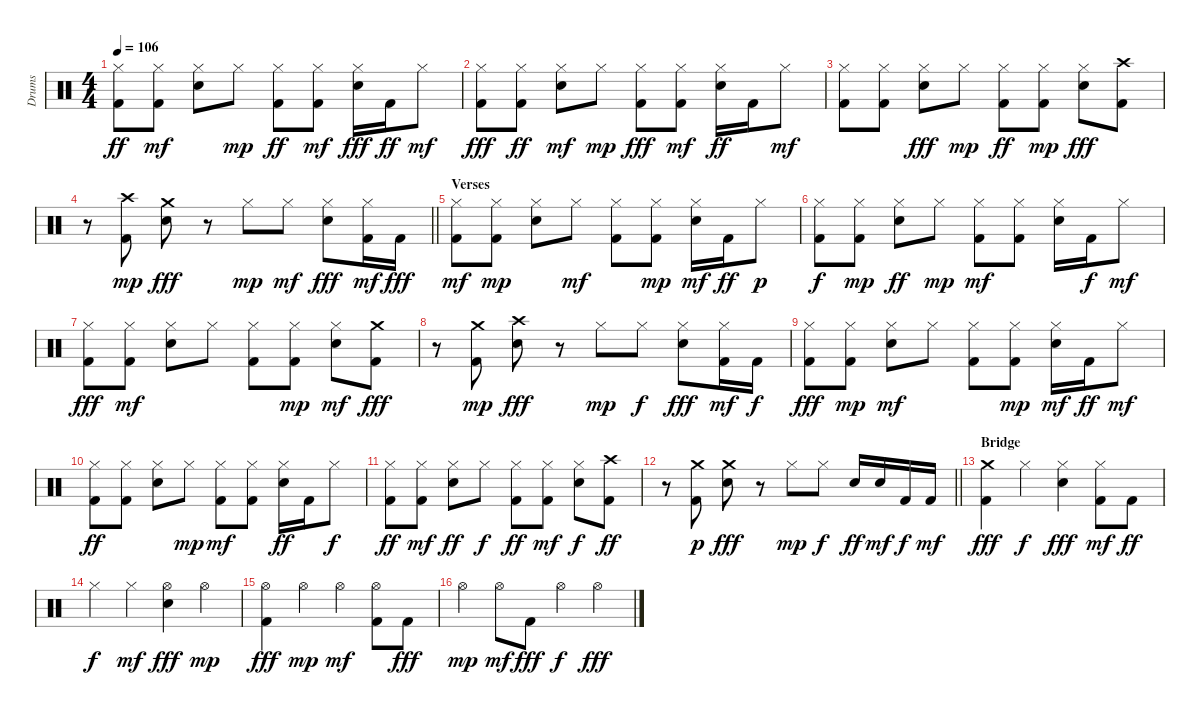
\track ("Drums" "Drums") {instrument percussion}
\staff {score}
\articulation defaults
\ts (4 4)
\tempo 106
\clef neutral
\ks c
("Kick (hit) 2" "Hi-Hat (closed)").8{dy ff} ("Kick (hit) 2" "Hi-Hat (closed)").8{dy mf} ("Snare (hit) 2" "Hi-Hat (closed)").8 "Hi-Hat (closed)".8{dy mp} ("Hi-Hat (closed)" "Kick (hit) 2").8{dy ff} ("Hi-Hat (closed)" "Kick (hit) 2").8{dy mf} ("Snare (hit) 2" "Hi-Hat (closed)").16{dy fff} "Kick (hit) 2".16{dy ff} "Hi-Hat (closed)".8{dy mf} |
("Hi-Hat (closed)" "Kick (hit) 2").8{dy fff} ("Hi-Hat (closed)" "Kick (hit) 2").8{dy ff} ("Snare (hit) 2" "Hi-Hat (closed)").8{dy mf} "Hi-Hat (closed)".8{dy mp} ("Kick (hit) 2" "Hi-Hat (closed)").8{dy fff} ("Kick (hit) 2" "Hi-Hat (closed)").8{dy mf} ("Snare (hit) 2" "Hi-Hat (closed)").16{dy ff} "Kick (hit) 2".16 "Hi-Hat (closed)".8{dy mf} |
("Kick (hit) 2" "Hi-Hat (closed)").8 ("Kick (hit) 2" "Hi-Hat (closed)").8 ("Snare (hit) 2" "Hi-Hat (closed)").8{dy fff} "Hi-Hat (closed)".8{dy mp} ("Kick (hit) 2" "Hi-Hat (closed)").8{dy ff} ("Hi-Hat (closed)" "Kick (hit) 2").8{dy mp} ("Snare (hit) 2" "Hi-Hat (closed)").8{dy fff} ("Crash high (hit)" "Kick (hit) 2").8 |
\barLineRight lightlight
r.8 ("Kick (hit) 2" "Crash high (hit)").8{dy mp} ("Crash medium (hit)" "Snare (hit) 2").8{dy fff} r.8 "Hi-Hat (closed)".8{dy mp} "Hi-Hat (closed)".8{dy mf} ("Snare (hit) 2" "Hi-Hat (closed)").8{dy fff} ("Kick (hit) 2" "Hi-Hat (closed)").16{dy mf} "Kick (hit) 2".16{dy fff} |
\section ("" "Verses")
("Kick (hit) 2" "Hi-Hat (closed)").8{dy mf} ("Kick (hit) 2" "Hi-Hat (closed)").8{dy mp} ("Snare (hit) 2" "Hi-Hat (closed)").8 "Hi-Hat (closed)".8{dy mf} ("Hi-Hat (closed)" "Kick (hit) 2").8 ("Hi-Hat (closed)" "Kick (hit) 2").8{dy mp} ("Hi-Hat (closed)" "Snare (hit) 2").16{dy mf} "Kick (hit) 2".16{dy ff} "Hi-Hat (closed)".8{dy p} |
("Hi-Hat (closed)" "Kick (hit) 2").8{dy f} ("Kick (hit) 2" "Hi-Hat (closed)").8{dy mp} ("Snare (hit) 2" "Hi-Hat (closed)").8{dy ff} "Hi-Hat (closed)".8{dy mp} ("Kick (hit) 2" "Hi-Hat (closed)").8{dy mf} ("Kick (hit) 2" "Hi-Hat (closed)").8 ("Snare (hit) 2" "Hi-Hat (closed)").16 "Kick (hit) 2".16{dy f} "Hi-Hat (closed)".8{dy mf} |
("Kick (hit) 2" "Hi-Hat (closed)").8{dy fff} ("Kick (hit) 2" "Hi-Hat (closed)").8{dy mf} ("Snare (hit) 2" "Hi-Hat (closed)").8 "Hi-Hat (closed)".8 ("Kick (hit) 2" "Hi-Hat (closed)").8 ("Kick (hit) 2" "Hi-Hat (closed)").8{dy mp} ("Snare (hit) 2" "Hi-Hat (closed)").8{dy mf} ("Kick (hit) 2" "Crash medium (hit)").8{dy fff} |
r.8 ("Kick (hit) 2" "Crash medium (hit)").8{dy mp} ("Crash high (hit)" "Snare (hit) 2").8{dy fff} r.8 "Hi-Hat (closed)".8{dy mp} "Hi-Hat (closed)".8{dy f} ("Hi-Hat (closed)" "Snare (hit) 2").8{dy fff} ("Hi-Hat (closed)" "Kick (hit) 2").16{dy mf} "Kick (hit) 2".16{dy f} |
("Hi-Hat (closed)" "Kick (hit) 2").8{dy fff} ("Kick (hit) 2" "Hi-Hat (closed)").8{dy mp} ("Snare (hit) 2" "Hi-Hat (closed)").8{dy mf} "Hi-Hat (closed)".8 ("Kick (hit) 2" "Hi-Hat (closed)").8 ("Hi-Hat (closed)" "Kick (hit) 2").8{dy mp} ("Snare (hit) 2" "Hi-Hat (closed)").16{dy mf} "Kick (hit) 2".16{dy ff} "Hi-Hat (closed)".8{dy mf} |
("Hi-Hat (closed)" "Kick (hit) 2").8{dy ff} ("Hi-Hat (closed)" "Kick (hit) 2").8 ("Snare (hit) 2" "Hi-Hat (closed)").8 "Hi-Hat (closed)".8{dy mp} ("Kick (hit) 2" "Hi-Hat (closed)").8{dy mf} ("Kick (hit) 2" "Hi-Hat (closed)").8 ("Snare (hit) 2" "Hi-Hat (closed)").16{dy ff} "Kick (hit) 2".16 "Hi-Hat (closed)".8{dy f} |
("Kick (hit) 2" "Hi-Hat (closed)").8{dy ff} ("Kick (hit) 2" "Hi-Hat (closed)").8{dy mf} ("Snare (hit) 2" "Hi-Hat (closed)").8{dy ff} "Hi-Hat (closed)".8{dy f} ("Kick (hit) 2" "Hi-Hat (closed)").8{dy ff} ("Kick (hit) 2" "Hi-Hat (closed)").8{dy mf} ("Hi-Hat (closed)" "Snare (hit) 2").8{dy f} ("Kick (hit) 2" "Crash high (hit)").8{dy ff} |
\barLineRight lightlight
r.8 ("Kick (hit) 2" "Crash medium (hit)").8{dy p} ("Crash medium (hit)" "Snare (hit) 2").8{dy fff} r.8 "Hi-Hat (closed)".8{dy mp} "Hi-Hat (closed)".8{dy f} "Snare (hit) 2".16{dy ff} "Snare (hit) 2".16{dy mf} "Kick (hit) 2".16{dy f} "Kick (hit) 2".16{dy mf} |
\section ("" "Bridge")
("Crash medium (hit)" "Kick (hit) 2").4{dy fff} "Hi-Hat (closed)".4{dy f} ("Hi-Hat (closed)" "Snare (hit) 2").4{dy fff} ("Hi-Hat (closed)" "Kick (hit) 2").8{dy mf} "Kick (hit) 2".8{dy ff} |
"Hi-Hat (closed)".4{dy f} "Hi-Hat (closed)".4{dy mf} ("Hi-Hat (open)" "Snare (hit) 2").4{dy fff} "Hi-Hat (open)".4{dy mp} |
("Hi-Hat (open)" "Kick (hit) 2").4{dy fff} "Hi-Hat (open)".4{dy mp} "Hi-Hat (open)".4{dy mf} ("Hi-Hat (open)" "Kick (hit) 2").8 "Kick (hit) 2".8{dy fff} |
"Hi-Hat (open)".4{dy mp} "Hi-Hat (open)".8{dy mf} "Kick (hit) 2".8{dy fff} "Hi-Hat (open)".4{dy f} "Hi-Hat (open)".4{dy fff}
